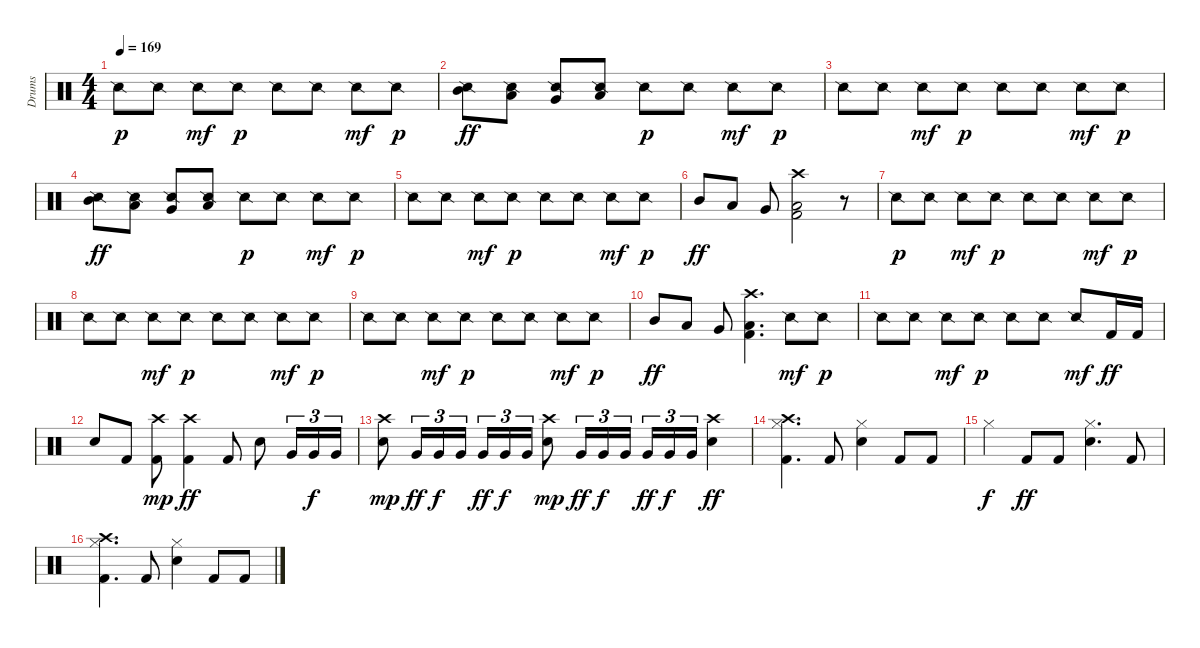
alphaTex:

\track ("Drums" "Drums") {instrument percussion}
\staff {score}
\articulation defaults
\ts (4 4)
\tempo 169
\clef neutral
\ks c "Snare (side stick) 2".8{dy p} "Snare (side stick) 2".8 "Snare (side stick) 2".8{dy mf} "Snare (side stick) 2".8{dy p} "Snare (side stick) 2".8 "Snare (side stick) 2".8 "Snare (side stick) 2".8{dy mf} "Snare (side stick) 2".8{dy p}
|
("Snare (side stick) 2" "Mid Tom (hit)").8{dy ff} ("Snare (side stick) 2" "Low Tom (hit)").8 ("Snare (side stick) 2" "Very Low Tom (hit)").8 ("Snare (side stick) 2" "Low Floor Tom (hit)").8 "Snare (side stick) 2".8{dy p} "Snare (side stick) 2".8 "Snare (side stick) 2".8{dy mf} "Snare (side stick) 2".8{dy p} |
"Snare (side stick) 2".8 "Snare (side stick) 2".8 "Snare (side stick) 2".8{dy mf} "Snare (side stick) 2".8{dy p} "Snare (side stick) 2".8 "Snare (side stick) 2".8 "Snare (side stick) 2".8{dy mf} "Snare (side stick) 2".8{dy p} |
("Snare (side stick) 2" "Mid Tom (hit)").8{dy ff} ("Snare (side stick) 2" "Low Tom (hit)").8 ("Snare (side stick) 2" "Very Low Tom (hit)").8 ("Snare (side stick) 2" "Low Floor Tom (hit)").8 "Snare (side stick) 2".8{dy p} "Snare (side stick) 2".8 "Snare (side stick) 2".8{dy mf} "Snare (side stick) 2".8{dy p} |
"Snare (side stick) 2".8 "Snare (side stick) 2".8 "Snare (side stick) 2".8{dy mf} "Snare (side stick) 2".8{dy p} "Snare (side stick) 2".8 "Snare (side stick) 2".8 "Snare (side stick) 2".8{dy mf} "Snare (side stick) 2".8{dy p} |
"Mid Tom (hit)".8{dy ff} "Low Tom (hit)".8 "Very Low Tom (hit)".8 ("Kick (hit) 2" "Low Floor Tom (hit)" "Crash high (hit)").2 r.8 |
"Snare (side stick) 2".8{dy p} "Snare (side stick) 2".8 "Snare (side stick) 2".8{dy mf} "Snare (side stick) 2".8{dy p} "Snare (side stick) 2".8 "Snare (side stick) 2".8 "Snare (side stick) 2".8{dy mf} "Snare (side stick) 2".8{dy p} |
"Snare (side stick) 2".8 "Snare (side stick) 2".8 "Snare (side stick) 2".8{dy mf} "Snare (side stick) 2".8{dy p} "Snare (side stick) 2".8 "Snare (side stick) 2".8 "Snare (side stick) 2".8{dy mf} "Snare (side stick) 2".8{dy p} |
"Snare (side stick) 2".8 "Snare (side stick) 2".8 "Snare (side stick) 2".8{dy mf} "Snare (side stick) 2".8{dy p} "Snare (side stick) 2".8 "Snare (side stick) 2".8 "Snare (side stick) 2".8{dy mf} "Snare (side stick) 2".8{dy p} |
"Mid Tom (hit)".8{dy ff} "Low Tom (hit)".8 "Very Low Tom (hit)".8 ("Kick (hit) 2" "Low Floor Tom (hit)" "Crash high (hit)").4{d} "Snare (side stick) 2".8{dy mf} "Snare (side stick) 2".8{dy p} |
"Snare (side stick) 2".8 "Snare (side stick) 2".8 "Snare (side stick) 2".8{dy mf} "Snare (side stick) 2".8{dy p} "Snare (side stick) 2".8 "Snare (side stick) 2".8 "Snare (side stick) 2".8{dy mf} "Kick (hit) 2".16{dy ff} "Kick (hit) 2".16 |
"Electric Snare (hit)".8 "Kick (hit) 2".8 ("Kick (hit) 2" "Crash high (hit)").8{dy mp} ("Kick (hit) 2" "Crash high (hit)").4{dy ff} "Kick (hit) 2".8 "Electric Snare (hit)".8 "Very Low Tom (hit)".16{tu (3 2)} "Very Low Tom (hit)".16{tu (3 2) dy f} "Very Low Tom (hit)".16{tu (3 2)} |
("Electric Snare (hit)" "Crash high (hit)").8{dy mp} "Very Low Tom (hit)".16{tu (3 2) dy ff} "Very Low Tom (hit)".16{tu (3 2) dy f} "Very Low Tom (hit)".16{tu (3 2)} "Very Low Tom (hit)".16{tu (3 2) dy ff} "Very Low Tom (hit)".16{tu (3 2) dy f} "Very Low Tom (hit)".16{tu (3 2)} ("Electric Snare (hit)" "Crash high (hit)").8{dy mp} "Very Low Tom (hit)".16{tu (3 2) dy ff} "Very Low Tom (hit)".16{tu (3 2) dy f} "Very Low Tom (hit)".16{tu (3 2) beam splitsecondary} "Very Low Tom (hit)".16{tu (3 2) dy ff} "Very Low Tom (hit)".16{tu (3 2) dy f} "Very Low Tom (hit)".16{tu (3 2)} ("Electric Snare (hit)" "Crash high (hit)").4{dy ff} |
("Kick (hit) 2" "Hi-Hat (closed)" "Crash high (hit)").4{d} "Kick (hit) 2".8 ("Electric Snare (hit)" "Hi-Hat (closed)").4 "Kick (hit) 2".8 "Kick (hit) 2".8 |
"Hi-Hat (closed)".4{dy f} "Kick (hit) 2".8{dy ff} "Kick (hit) 2".8 ("Electric Snare (hit)" "Hi-Hat (closed)").4{d} "Kick (hit) 2".8 |
("Kick (hit) 2" "Hi-Hat (closed)" "Crash high (hit)").4{d} "Kick (hit) 2".8 ("Electric Snare (hit)" "Hi-Hat (closed)").4 "Kick (hit) 2".8 "Kick (hit) 2".8
